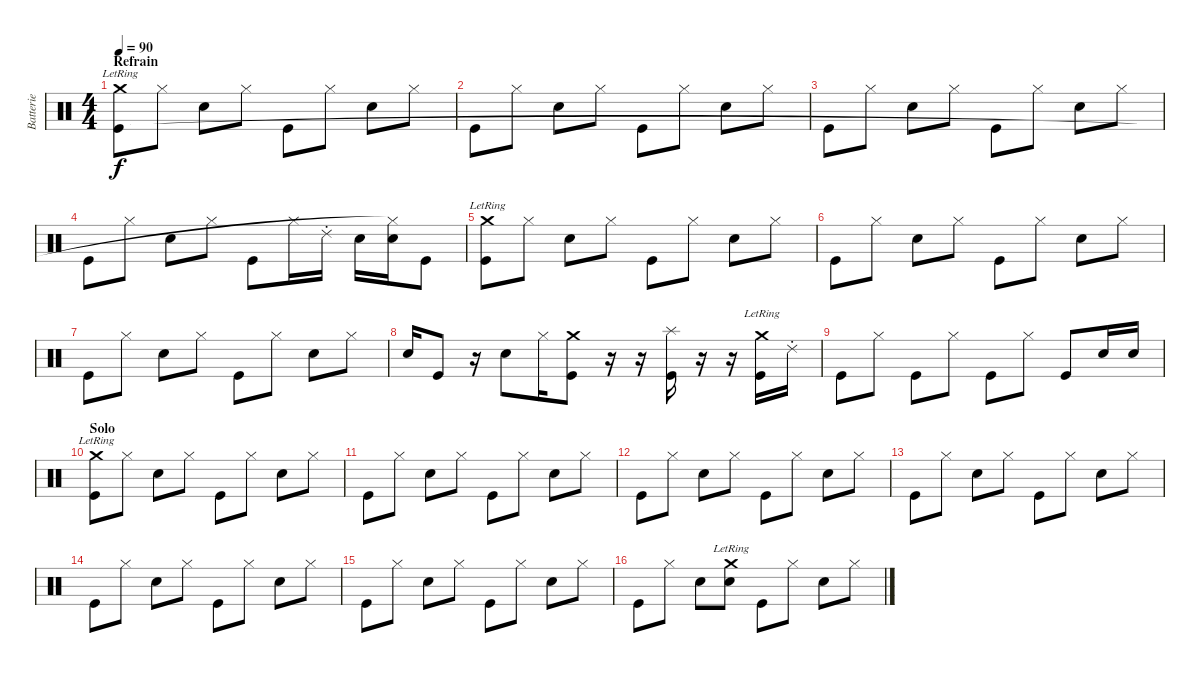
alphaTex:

\track ("Batterie" "Batterie") {instrument percussion}
\staff {score}
\articulation defaults
\ts (4 4)
\section ("" "Refrain")
\tempo 90
\clef neutral
\ks c
("Crash medium (hit)"{lr} "Kick (hit)").8{dy f} "Hi-Hat (closed)".8 "Electric Snare (hit)".8 "Hi-Hat (closed)".8 "Kick (hit)".8 "Hi-Hat (closed)".8 "Electric Snare (hit)".8 "Hi-Hat (closed)".8 |
"Kick (hit)".8 "Hi-Hat (closed)".8 "Electric Snare (hit)".8 "Hi-Hat (closed)".8 "Kick (hit)".8 "Hi-Hat (closed)".8 "Electric Snare (hit)".8 "Hi-Hat (closed)".8 |
"Kick (hit)".8 "Hi-Hat (closed)".8 "Electric Snare (hit)".8 "Hi-Hat (closed)".8 "Kick (hit)".8 "Hi-Hat (closed)".8 "Electric Snare (hit)".8 "Hi-Hat (closed)".8 |
"Kick (hit)".8 "Hi-Hat (closed)".8 "Electric Snare (hit)".8 "Hi-Hat (closed)".8 "Kick (hit)".8 "Hi-Hat (closed)".16 "Ride (choke) 2".16 "Electric Snare (hit)".16 ("Electric Snare (hit)" "Hi-Hat (closed)"{t}).16 "Kick (hit)".8 |
("Crash medium (hit)"{lr} "Kick (hit)").8 "Hi-Hat (closed)".8 "Electric Snare (hit)".8 "Hi-Hat (closed)".8 "Kick (hit)".8 "Hi-Hat (closed)".8 "Electric Snare (hit)".8 "Hi-Hat (closed)".8 |
"Kick (hit)".8 "Hi-Hat (closed)".8 "Electric Snare (hit)".8 "Hi-Hat (closed)".8 "Kick (hit)".8 "Hi-Hat (closed)".8 "Electric Snare (hit)".8 "Hi-Hat (closed)".8 |
"Kick (hit)".8 "Hi-Hat (closed)".8 "Electric Snare (hit)".8 "Hi-Hat (closed)".8 "Kick (hit)".8 "Hi-Hat (closed)".8 "Electric Snare (hit)".8 "Hi-Hat (closed)".8 |
"Electric Snare (hit)".16 "Kick (hit)".8 r.16 "Electric Snare (hit)".8 "Hi-Hat (closed)".16 ("Crash medium (hit)" "Kick (hit)").8 r.16 r.16 ("Splash (hit)" "Kick (hit)").16 r.16 r.16 ("Crash medium (hit)"{lr} "Kick (hit)").16 "Ride (choke) 2".16 |
"Kick (hit)".8 "Hi-Hat (closed)".8 "Kick (hit)".8 "Hi-Hat (closed)".8 "Kick (hit)".8 "Hi-Hat (closed)".8 "Kick (hit)".8 "Electric Snare (hit)".16 "Electric Snare (hit)".16 |
\section ("" "Solo")
("Crash medium (hit)"{lr} "Kick (hit)").8 "Hi-Hat (closed)".8 "Electric Snare (hit)".8 "Hi-Hat (closed)".8 "Kick (hit)".8 "Hi-Hat (closed)".8 "Electric Snare (hit)".8 "Hi-Hat (closed)".8 |
"Kick (hit)".8 "Hi-Hat (closed)".8 "Electric Snare (hit)".8 "Hi-Hat (closed)".8 "Kick (hit)".8 "Hi-Hat (closed)".8 "Electric Snare (hit)".8 "Hi-Hat (closed)".8 |
"Kick (hit)".8 "Hi-Hat (closed)".8 "Electric Snare (hit)".8 "Hi-Hat (closed)".8 "Kick (hit)".8 "Hi-Hat (closed)".8 "Electric Snare (hit)".8 "Hi-Hat (closed)".8 |
"Kick (hit)".8 "Hi-Hat (closed)".8 "Electric Snare (hit)".8 "Hi-Hat (closed)".8 "Kick (hit)".8 "Hi-Hat (closed)".8 "Electric Snare (hit)".8 "Hi-Hat (closed)".8 |
"Kick (hit)".8 "Hi-Hat (closed)".8 "Electric Snare (hit)".8 "Hi-Hat (closed)".8 "Kick (hit)".8 "Hi-Hat (closed)".8 "Electric Snare (hit)".8 "Hi-Hat (closed)".8 |
"Kick (hit)".8 "Hi-Hat (closed)".8 "Electric Snare (hit)".8 "Hi-Hat (closed)".8 "Kick (hit)".8 "Hi-Hat (closed)".8 "Electric Snare (hit)".8 "Hi-Hat (closed)".8 |
"Kick (hit)".8 "Hi-Hat (closed)".8 "Electric Snare (hit)".8 ("Electric Snare (hit)" "Crash medium (hit)"{lr}).8 "Kick (hit)".8 "Hi-Hat (closed)".8 "Electric Snare (hit)".8 "Hi-Hat (closed)".8
